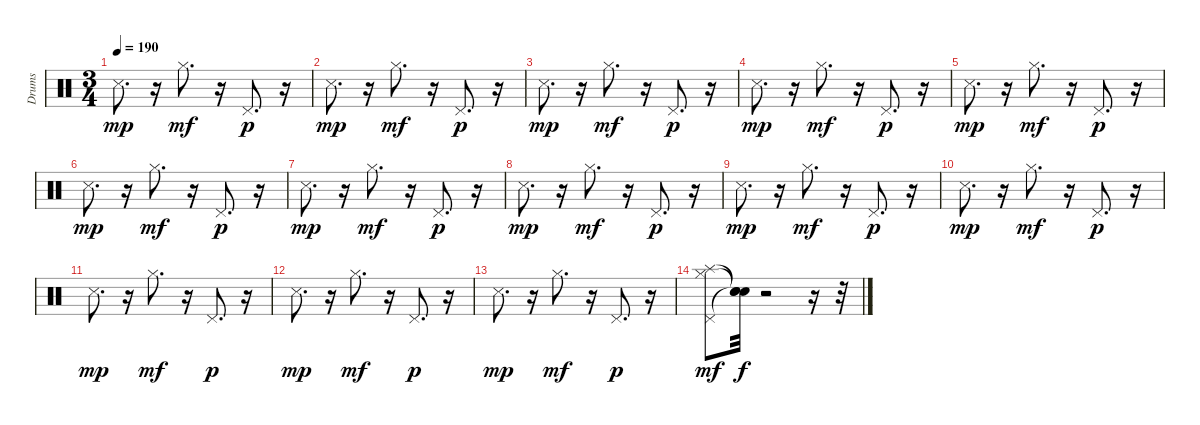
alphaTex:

\track ("Drums" "Drums") {instrument percussion}
\staff {score}
\articulation defaults
\ts (3 4)
\tempo 190
\clef neutral
\ks c "Metronome (hit)".8{d dy mp}
r.16 "Hi-Hat (closed)".8{d dy mf} r.16 "Pedal Hi-Hat (hit)".8{d dy p} r.16 |
"Metronome (hit)".8{d dy mp} r.16 "Hi-Hat (closed)".8{d dy mf} r.16 "Pedal Hi-Hat (hit)".8{d dy p} r.16 |
"Metronome (hit)".8{d dy mp} r.16 "Hi-Hat (closed)".8{d dy mf} r.16 "Pedal Hi-Hat (hit)".8{d dy p} r.16 |
"Metronome (hit)".8{d dy mp} r.16 "Hi-Hat (closed)".8{d dy mf} r.16 "Pedal Hi-Hat (hit)".8{d dy p} r.16 |
"Metronome (hit)".8{d dy mp} r.16 "Hi-Hat (closed)".8{d dy mf} r.16 "Pedal Hi-Hat (hit)".8{d dy p} r.16 |
"Metronome (hit)".8{d dy mp} r.16 "Hi-Hat (closed)".8{d dy mf} r.16 "Pedal Hi-Hat (hit)".8{d dy p} r.16 |
"Metronome (hit)".8{d dy mp} r.16 "Hi-Hat (closed)".8{d dy mf} r.16 "Pedal Hi-Hat (hit)".8{d dy p} r.16 |
"Metronome (hit)".8{d dy mp} r.16 "Hi-Hat (closed)".8{d dy mf} r.16 "Pedal Hi-Hat (hit)".8{d dy p} r.16 |
"Metronome (hit)".8{d dy mp} r.16 "Hi-Hat (closed)".8{d dy mf} r.16 "Pedal Hi-Hat (hit)".8{d dy p} r.16 |
"Metronome (hit)".8{d dy mp} r.16 "Hi-Hat (closed)".8{d dy mf} r.16 "Pedal Hi-Hat (hit)".8{d dy p} r.16 |
"Metronome (hit)".8{d dy mp} r.16 "Hi-Hat (closed)".8{d dy mf} r.16 "Pedal Hi-Hat (hit)".8{d dy p} r.16 |
"Metronome (hit)".8{d dy mp} r.16 "Hi-Hat (closed)".8{d dy mf} r.16 "Pedal Hi-Hat (hit)".8{d dy p} r.16 |
"Metronome (hit)".8{d dy mp} r.16 "Hi-Hat (closed)".8{d dy mf} r.16 "Pedal Hi-Hat (hit)".8{d dy p} r.16 |
("Splash (hit)" "Pedal Hi-Hat (hit)" "Hi-Hat (closed)").8{dy mf} ("Snare (hit)"{t} "Snare (hit)"{t} "Snare (hit)"{t}).32{dy f} r.2 r.16 r.32
